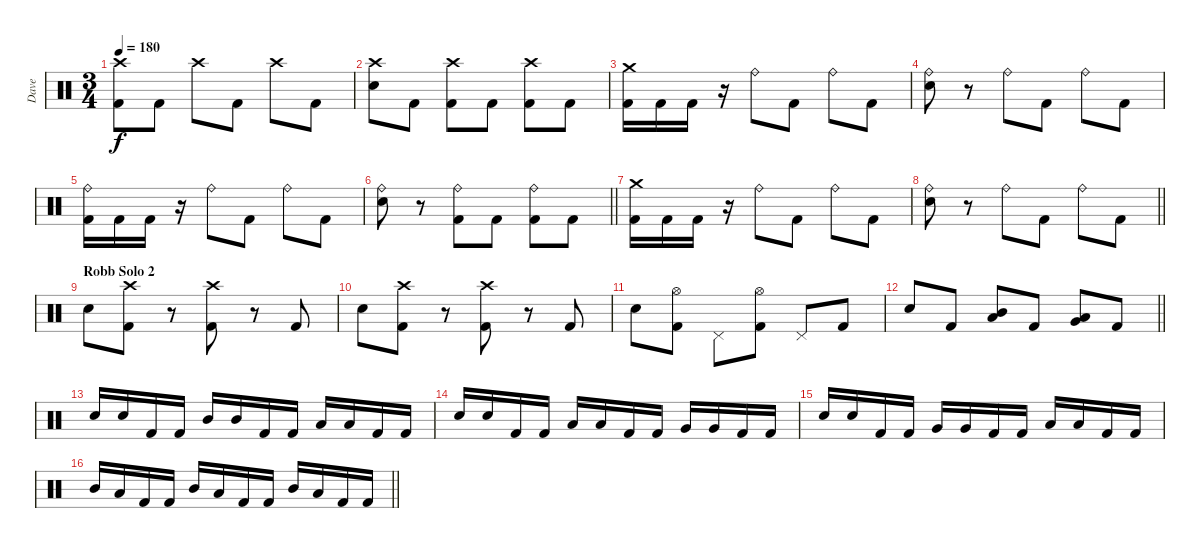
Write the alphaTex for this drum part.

\track ("Dave" "Dave") {instrument percussion}
\staff {score}
\articulation defaults
\ts (3 4)
\tempo 180
\clef neutral
\ks c
("Kick (hit) 2" "Crash high (hit)").8{dy f} "Kick (hit) 2".8 "Crash high (hit)".8 "Kick (hit) 2".8 "Crash high (hit)".8 "Kick (hit) 2".8 |
("Electric Snare (hit)" "Crash high (hit)").8 "Kick (hit) 2".8 ("Kick (hit) 2" "Crash high (hit)").8 "Kick (hit) 2".8 ("Kick (hit) 2" "Crash high (hit)").8 "Kick (hit) 2".8 |
("Kick (hit) 2" "Crash medium (hit)").16 "Kick (hit) 2".16 "Kick (hit) 2".16 r.16 "Ride (bell)".8 "Kick (hit) 2".8 "Ride (bell)".8 "Kick (hit) 2".8 |
("Electric Snare (hit)" "Ride (bell)").8 r.8 "Ride (bell)".8 "Kick (hit) 2".8 "Ride (bell)".8 "Kick (hit) 2".8 |
("Kick (hit) 2" "Ride (bell)").16 "Kick (hit) 2".16 "Kick (hit) 2".16 r.16 "Ride (bell)".8 "Kick (hit) 2".8 "Ride (bell)".8 "Kick (hit) 2".8 |
\barLineRight lightlight
("Electric Snare (hit)" "Ride (bell)").8 r.8 ("Kick (hit) 2" "Ride (bell)").8 "Kick (hit) 2".8 ("Kick (hit) 2" "Ride (bell)").8 "Kick (hit) 2".8 |
("Kick (hit) 2" "Crash medium (hit)").16 "Kick (hit) 2".16 "Kick (hit) 2".16 r.16 "Ride (bell)".8 "Kick (hit) 2".8 "Ride (bell)".8 "Kick (hit) 2".8 |
\barLineRight lightlight
("Electric Snare (hit)" "Ride (bell)").8 r.8 "Ride (bell)".8 "Kick (hit) 2".8 "Ride (bell)".8 "Kick (hit) 2".8 |
\section ("" "Robb Solo 2")
"Electric Snare (hit)".8 ("Kick (hit) 2" "Crash high (hit)").8 r.8 ("Kick (hit) 2" "Crash high (hit)").8 r.8 "Kick (hit) 2".8 |
"Electric Snare (hit)".8 ("Kick (hit) 2" "Crash high (hit)").8 r.8 ("Kick (hit) 2" "Crash high (hit)").8 r.8 "Kick (hit) 2".8 |
"Electric Snare (hit)".8 ("Kick (hit) 2" "Hi-Hat (open)").8 "Pedal Hi-Hat (hit)".8 ("Kick (hit) 2" "Hi-Hat (open)").8 "Pedal Hi-Hat (hit)".8 "Kick (hit) 2".8 |
\barLineRight lightlight "Electric Snare (hit)".8 "Kick (hit) 2".8
("Mid Tom (hit)" "Low Tom (hit)").8 "Kick (hit) 2".8 ("Low Tom (hit)" "Very Low Tom (hit)").8 "Kick (hit) 2".8 |
"Electric Snare (hit)".16 "Electric Snare (hit)".16 "Kick (hit) 2".16 "Kick (hit) 2".16 "Mid Tom (hit)".16 "Mid Tom (hit)".16 "Kick (hit) 2".16 "Kick (hit) 2".16 "Low Tom (hit)".16 "Low Tom (hit)".16 "Kick (hit) 2".16 "Kick (hit) 2".16 |
"Electric Snare (hit)".16 "Electric Snare (hit)".16 "Kick (hit) 2".16 "Kick (hit) 2".16 "Low Tom (hit)".16 "Low Tom (hit)".16 "Kick (hit) 2".16 "Kick (hit) 2".16 "Very Low Tom (hit)".16 "Very Low Tom (hit)".16 "Kick (hit) 2".16 "Kick (hit) 2".16 |
"Electric Snare (hit)".16 "Electric Snare (hit)".16 "Kick (hit) 2".16 "Kick (hit) 2".16 "Very Low Tom (hit)".16 "Very Low Tom (hit)".16 "Kick (hit) 2".16 "Kick (hit) 2".16 "Low Floor Tom (hit)".16 "Low Floor Tom (hit)".16 "Kick (hit) 2".16 "Kick (hit) 2".16 |
\barLineRight lightlight "Mid Tom (hit)".16 "Low Tom (hit)".16 "Kick (hit) 2".16 "Kick (hit) 2".16 "Mid Tom (hit)".16 "Low Tom (hit)".16 "Kick (hit) 2".16 "Kick (hit) 2".16 "Mid Tom (hit)".16 "Low Tom (hit)".16 "Kick (hit) 2".16 "Kick (hit) 2".16
